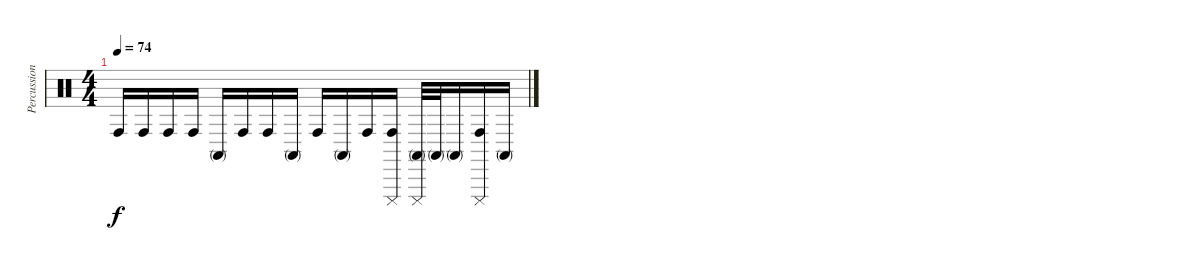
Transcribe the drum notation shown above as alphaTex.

\track ("Percussion" "Percussion") {instrument percussion}
\staff {score}
\articulation defaults
\ts (4 4)
\tempo 74
\clef neutral
\ks c "Conga high (hit)".16{dy f} "Conga high (hit)".16 "Conga high (hit)".16 "Conga high (hit)".16 "Conga high (mute)".16 "Conga high (hit)".16 "Conga high (hit)".16 "Conga high (mute)".16 "Conga high (hit)".16 "Conga high (mute)".16 "Conga high (hit)".16
("Cuica (mute)" "Conga high (hit)").16 ("Cuica (mute)" "Conga high (mute)").32 "Conga high (mute)".32 "Conga high (mute)".16 ("Cuica (mute)" "Conga high (hit)").16 "Conga high (mute)".16
